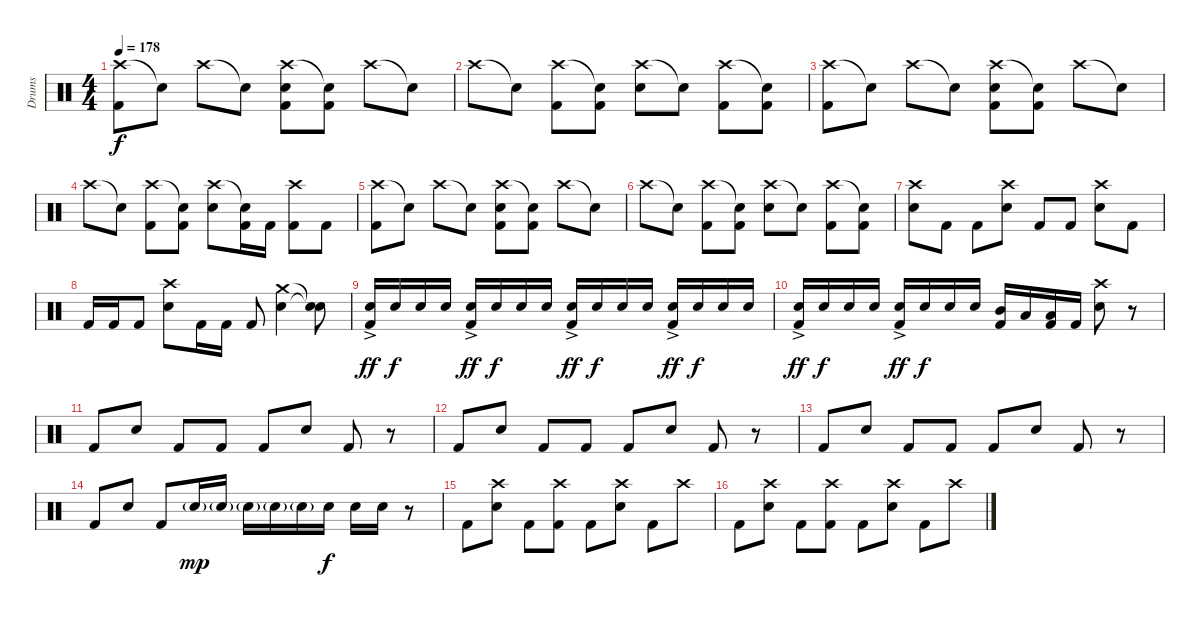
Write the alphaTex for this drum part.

\track ("Drums" "Drums") {instrument percussion}
\staff {score}
\articulation defaults
\ts (4 4)
\tempo 178
\clef neutral
\ks c
("Crash high (hit)" "Kick (hit) 2").8{dy f} "Snare (hit)"{t}.8 "Crash high (hit)".8 "Snare (hit)"{t}.8 ("Crash high (hit)" "Electric Snare (hit)" "Kick (hit) 2").8 ("Snare (hit)"{t} "Kick (hit) 2").8 "Crash high (hit)".8 "Snare (hit)"{t}.8 |
"Crash high (hit)".8 "Snare (hit)"{t}.8 ("Crash high (hit)" "Kick (hit) 2").8 ("Snare (hit)"{t} "Kick (hit) 2").8 ("Crash high (hit)" "Electric Snare (hit)").8 "Snare (hit)"{t}.8 ("Crash high (hit)" "Kick (hit) 2").8 ("Snare (hit)"{t} "Kick (hit) 2").8 |
("Crash high (hit)" "Kick (hit) 2").8 "Snare (hit)"{t}.8 "Crash high (hit)".8 "Snare (hit)"{t}.8 ("Crash high (hit)" "Electric Snare (hit)" "Kick (hit) 2").8 ("Snare (hit)"{t} "Kick (hit) 2").8 "Crash high (hit)".8 "Snare (hit)"{t}.8 |
"Crash high (hit)".8 "Snare (hit)"{t}.8 ("Crash high (hit)" "Kick (hit) 2").8 ("Snare (hit)"{t} "Kick (hit) 2").8 ("Crash high (hit)" "Electric Snare (hit)").8 ("Snare (hit)"{t} "Kick (hit) 2").16 "Kick (hit) 2".16 ("Crash high (hit)" "Kick (hit) 2").8 "Kick (hit) 2".8 |
("Crash high (hit)" "Kick (hit) 2").8 "Snare (hit)"{t}.8 "Crash high (hit)".8 "Snare (hit)"{t}.8 ("Crash high (hit)" "Electric Snare (hit)" "Kick (hit) 2").8 ("Snare (hit)"{t} "Kick (hit) 2").8 "Crash high (hit)".8 "Snare (hit)"{t}.8 |
"Crash high (hit)".8 "Snare (hit)"{t}.8 ("Crash high (hit)" "Kick (hit) 2").8 ("Snare (hit)"{t} "Kick (hit) 2").8 ("Crash high (hit)" "Electric Snare (hit)").8 "Snare (hit)"{t}.8 ("Crash high (hit)" "Kick (hit) 2").8 ("Snare (hit)"{t} "Kick (hit) 2").8 |
("Crash high (hit)" "Electric Snare (hit)").8 "Kick (hit) 2".8 "Kick (hit) 2".8 ("Crash high (hit)" "Electric Snare (hit)").8 "Kick (hit) 2".8 "Kick (hit) 2".8 ("Crash high (hit)" "Electric Snare (hit)").8 "Kick (hit) 2".8 |
"Kick (hit) 2".16 "Kick (hit) 2".16 "Kick (hit) 2".8 ("Crash high (hit)" "Electric Snare (hit)").8 "Kick (hit) 2".16 "Kick (hit) 2".16 "Kick (hit) 2".8 ("Crash medium (hit)" "Electric Snare (hit)").4 ("Snare (hit)"{t} "Snare (hit)"{t}).8 |
("Electric Snare (hit)"{ac} "Kick (hit) 2").16{dy ff} "Electric Snare (hit)".16{dy f} "Electric Snare (hit)".16 "Electric Snare (hit)".16 ("Electric Snare (hit)"{ac} "Kick (hit) 2").16{dy ff} "Electric Snare (hit)".16{dy f} "Electric Snare (hit)".16 "Electric Snare (hit)".16 ("Electric Snare (hit)"{ac} "Kick (hit) 2").16{dy ff} "Electric Snare (hit)".16{dy f} "Electric Snare (hit)".16 "Electric Snare (hit)".16 ("Electric Snare (hit)"{ac} "Kick (hit) 2").16{dy ff} "Electric Snare (hit)".16{dy f} "Electric Snare (hit)".16 "Electric Snare (hit)".16 |
("Electric Snare (hit)"{ac} "Kick (hit) 2").16{dy ff} "Electric Snare (hit)".16{dy f} "Electric Snare (hit)".16 "Electric Snare (hit)".16 ("Electric Snare (hit)"{ac} "Kick (hit) 2").16{dy ff} "Electric Snare (hit)".16{dy f} "Electric Snare (hit)".16 "Electric Snare (hit)".16 ("Mid Tom (hit)" "Kick (hit) 2").16 "Low Tom (hit)".16 ("Low Tom (hit)" "Kick (hit) 2").16 "Kick (hit) 2".16 ("Crash high (hit)" "Electric Snare (hit)").8 r.8 |
"Kick (hit) 2".8 "Electric Snare (hit)".8 "Kick (hit) 2".8 "Kick (hit) 2".8 "Kick (hit) 2".8 "Electric Snare (hit)".8 "Kick (hit) 2".8 r.8 |
"Kick (hit) 2".8 "Electric Snare (hit)".8 "Kick (hit) 2".8 "Kick (hit) 2".8 "Kick (hit) 2".8 "Electric Snare (hit)".8 "Kick (hit) 2".8 r.8 |
"Kick (hit) 2".8 "Electric Snare (hit)".8 "Kick (hit) 2".8 "Kick (hit) 2".8 "Kick (hit) 2".8 "Electric Snare (hit)".8 "Kick (hit) 2".8 r.8 |
"Kick (hit) 2".8 "Electric Snare (hit)".8 "Kick (hit) 2".8 "Electric Snare (hit)"{g}.16{dy mp} "Electric Snare (hit)"{g}.16 "Electric Snare (hit)"{g}.16 "Electric Snare (hit)"{g}.16 "Electric Snare (hit)"{g}.16 "Electric Snare (hit)".16{dy f} "Electric Snare (hit)".16 "Electric Snare (hit)".16 r.8 |
"Kick (hit) 2".8 ("Crash high (hit)" "Electric Snare (hit)").8 "Kick (hit) 2".8 ("Crash high (hit)" "Kick (hit) 2").8 "Kick (hit) 2".8 ("Crash high (hit)" "Electric Snare (hit)").8 "Kick (hit) 2".8 "Crash high (hit)".8 |
"Kick (hit) 2".8 ("Crash high (hit)" "Electric Snare (hit)").8 "Kick (hit) 2".8 ("Crash high (hit)" "Kick (hit) 2").8 "Kick (hit) 2".8 ("Crash high (hit)" "Electric Snare (hit)").8 "Kick (hit) 2".8 "Crash high (hit)".8
